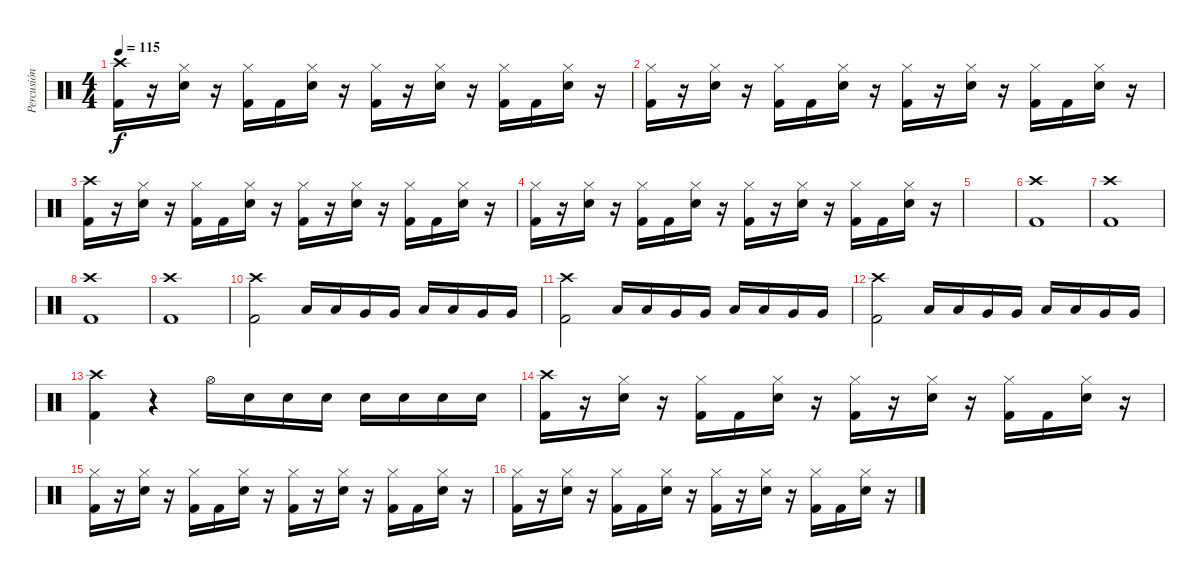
\track ("Percusión" "Percusión") {instrument percussion}
\staff {score}
\articulation defaults
\ts (4 4)
\tempo 115
\clef neutral
\ks c
("Crash high (hit)" "Kick (hit) 2").16{dy f} r.16 ("Hi-Hat (closed)" "Electric Snare (hit)").16 r.16 ("Hi-Hat (closed)" "Kick (hit) 2").16 "Kick (hit) 2".16 ("Hi-Hat (closed)" "Electric Snare (hit)").16 r.16 ("Hi-Hat (closed)" "Kick (hit) 2").16 r.16 ("Hi-Hat (closed)" "Electric Snare (hit)").16 r.16 ("Hi-Hat (closed)" "Kick (hit) 2").16 "Kick (hit) 2".16 ("Hi-Hat (closed)" "Electric Snare (hit)").16 r.16 |
("Hi-Hat (closed)" "Kick (hit) 2").16 r.16 ("Hi-Hat (closed)" "Electric Snare (hit)").16 r.16 ("Hi-Hat (closed)" "Kick (hit) 2").16 "Kick (hit) 2".16 ("Hi-Hat (closed)" "Electric Snare (hit)").16 r.16 ("Hi-Hat (closed)" "Kick (hit) 2").16 r.16 ("Hi-Hat (closed)" "Electric Snare (hit)").16 r.16 ("Hi-Hat (closed)" "Kick (hit) 2").16 "Kick (hit) 2".16 ("Hi-Hat (closed)" "Electric Snare (hit)").16 r.16 |
("Crash high (hit)" "Kick (hit) 2").16 r.16 ("Hi-Hat (closed)" "Electric Snare (hit)").16 r.16 ("Hi-Hat (closed)" "Kick (hit) 2").16 "Kick (hit) 2".16 ("Hi-Hat (closed)" "Electric Snare (hit)").16 r.16 ("Hi-Hat (closed)" "Kick (hit) 2").16 r.16 ("Hi-Hat (closed)" "Electric Snare (hit)").16 r.16 ("Hi-Hat (closed)" "Kick (hit) 2").16 "Kick (hit) 2".16 ("Hi-Hat (closed)" "Electric Snare (hit)").16 r.16 |
("Hi-Hat (closed)" "Kick (hit) 2").16 r.16 ("Hi-Hat (closed)" "Electric Snare (hit)").16 r.16 ("Hi-Hat (closed)" "Kick (hit) 2").16 "Kick (hit) 2".16 ("Hi-Hat (closed)" "Electric Snare (hit)").16 r.16 ("Hi-Hat (closed)" "Kick (hit) 2").16 r.16 ("Hi-Hat (closed)" "Electric Snare (hit)").16 r.16 ("Hi-Hat (closed)" "Kick (hit) 2").16 "Kick (hit) 2".16 ("Hi-Hat (closed)" "Electric Snare (hit)").16 r.16 |
|
("Crash high (hit)" "Kick (hit) 2").1 |
("Crash high (hit)" "Kick (hit) 2").1 |
("Crash high (hit)" "Kick (hit) 2").1 |
("Crash high (hit)" "Kick (hit) 2").1 |
("Crash high (hit)" "Kick (hit) 2").2 "Low Tom (hit)".16 "Low Tom (hit)".16 "Very Low Tom (hit)".16 "Very Low Tom (hit)".16 "Low Floor Tom (hit)".16 "Low Floor Tom (hit)".16 "Very Low Tom (hit)".16 "Very Low Tom (hit)".16 |
("Crash high (hit)" "Kick (hit) 2").2 "Low Tom (hit)".16 "Low Tom (hit)".16 "Very Low Tom (hit)".16 "Very Low Tom (hit)".16 "Low Floor Tom (hit)".16 "Low Floor Tom (hit)".16 "Very Low Tom (hit)".16 "Very Low Tom (hit)".16 |
("Crash high (hit)" "Kick (hit) 2").2 "Low Tom (hit)".16 "Low Tom (hit)".16 "Very Low Tom (hit)".16 "Very Low Tom (hit)".16 "Low Floor Tom (hit)".16 "Low Floor Tom (hit)".16 "Very Low Tom (hit)".16 "Very Low Tom (hit)".16 |
("Crash high (hit)" "Kick (hit) 2").4 r.4 "Hi-Hat (open)".16 "Electric Snare (hit)".16 "Electric Snare (hit)".16 "Electric Snare (hit)".16 "Electric Snare (hit)".16 "Electric Snare (hit)".16 "Electric Snare (hit)".16 "Electric Snare (hit)".16 |
("Crash high (hit)" "Kick (hit) 2").16 r.16 ("Hi-Hat (closed)" "Electric Snare (hit)").16 r.16 ("Hi-Hat (closed)" "Kick (hit) 2").16 "Kick (hit) 2".16 ("Hi-Hat (closed)" "Electric Snare (hit)").16 r.16 ("Hi-Hat (closed)" "Kick (hit) 2").16 r.16 ("Hi-Hat (closed)" "Electric Snare (hit)").16 r.16 ("Hi-Hat (closed)" "Kick (hit) 2").16 "Kick (hit) 2".16 ("Hi-Hat (closed)" "Electric Snare (hit)").16 r.16 |
("Hi-Hat (closed)" "Kick (hit) 2").16 r.16 ("Hi-Hat (closed)" "Electric Snare (hit)").16 r.16 ("Hi-Hat (closed)" "Kick (hit) 2").16 "Kick (hit) 2".16 ("Hi-Hat (closed)" "Electric Snare (hit)").16 r.16 ("Hi-Hat (closed)" "Kick (hit) 2").16 r.16 ("Hi-Hat (closed)" "Electric Snare (hit)").16 r.16 ("Hi-Hat (closed)" "Kick (hit) 2").16 "Kick (hit) 2".16 ("Hi-Hat (closed)" "Electric Snare (hit)").16 r.16 |
("Hi-Hat (closed)" "Kick (hit) 2").16 r.16 ("Hi-Hat (closed)" "Electric Snare (hit)").16 r.16 ("Hi-Hat (closed)" "Kick (hit) 2").16 "Kick (hit) 2".16 ("Hi-Hat (closed)" "Electric Snare (hit)").16 r.16 ("Hi-Hat (closed)" "Kick (hit) 2").16 r.16 ("Hi-Hat (closed)" "Electric Snare (hit)").16 r.16 ("Hi-Hat (closed)" "Kick (hit) 2").16 "Kick (hit) 2".16 ("Hi-Hat (closed)" "Electric Snare (hit)").16 r.16
